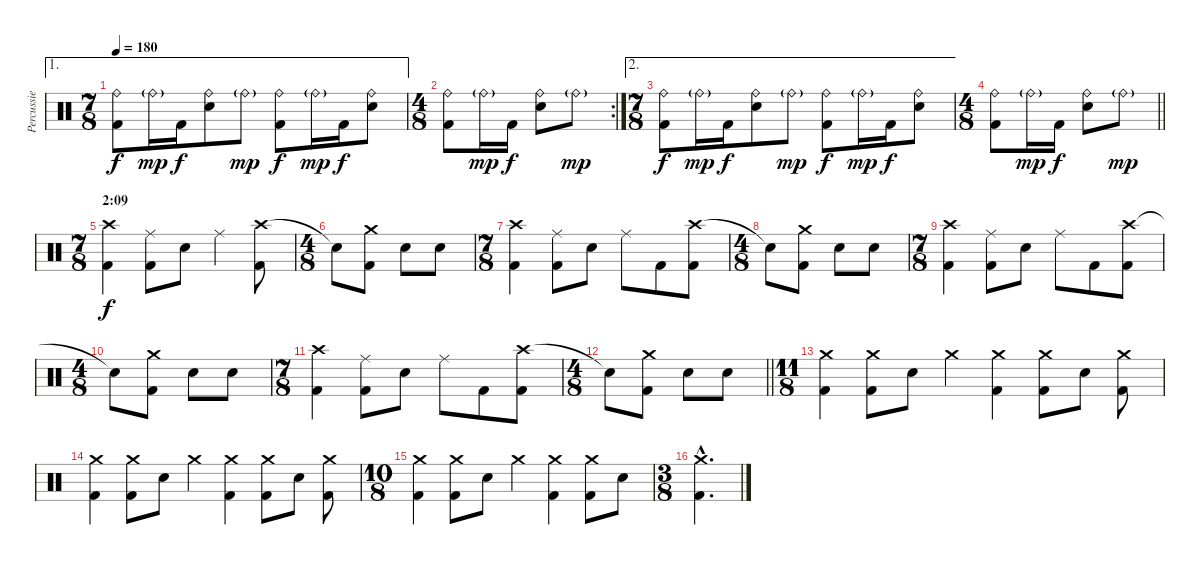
\track ("Percussie" "Percussie") {instrument percussion}
\staff {score}
\articulation defaults
\ae 1
\ts (7 8)
\tempo 180
\clef neutral
\ks c
("Ride (bell)" "Kick (hit) 2").8{dy f} "Ride (bell)"{g}.16{dy mp} "Kick (hit) 2".16{dy f} ("Ride (bell)" "Snare (hit) 2").8 "Ride (bell)"{g}.8{dy mp} ("Ride (bell)" "Kick (hit) 2").8{dy f} "Ride (bell)"{g}.16{dy mp} "Kick (hit) 2".16{dy f} ("Ride (bell)" "Snare (hit) 2").8 |
\rc 2
\ts (4 8)
("Ride (bell)" "Kick (hit) 2").8 "Ride (bell)"{g}.16{dy mp} "Kick (hit) 2".16{dy f} ("Ride (bell)" "Snare (hit) 2").8 "Ride (bell)"{g}.8{dy mp} |
\ae 2
\ts (7 8)
("Ride (bell)" "Kick (hit) 2").8{dy f} "Ride (bell)"{g}.16{dy mp} "Kick (hit) 2".16{dy f} ("Ride (bell)" "Snare (hit) 2").8 "Ride (bell)"{g}.8{dy mp} ("Ride (bell)" "Kick (hit) 2").8{dy f} "Ride (bell)"{g}.16{dy mp} "Kick (hit) 2".16{dy f} ("Ride (bell)" "Snare (hit) 2").8 |
\ts (4 8)
\barLineRight lightlight
("Ride (bell)" "Kick (hit) 2").8 "Ride (bell)"{g}.16{dy mp} "Kick (hit) 2".16{dy f} ("Ride (bell)" "Snare (hit) 2").8 "Ride (bell)"{g}.8{dy mp} |
\ts (7 8)
\section ("" "2:09")
("Crash high (hit)" "Kick (hit) 2").4{dy f} ("Ride (middle)" "Kick (hit) 2").8 "Snare (hit) 2".8 "Ride (middle)".4 ("Crash high (hit)" "Kick (hit) 2").8 |
\ts (4 8)
"Snare (hit)"{t}.8 ("Crash medium (hit)" "Kick (hit) 2").8 "Snare (hit) 2".8 "Snare (hit) 2".8 |
\ts (7 8)
("Crash high (hit)" "Kick (hit) 2").4 ("Ride (middle)" "Kick (hit) 2").8 "Snare (hit) 2".8 "Ride (middle)".8 "Kick (hit) 2".8 ("Crash high (hit)" "Kick (hit) 2").8 |
\ts (4 8)
"Snare (hit)"{t}.8 ("Crash medium (hit)" "Kick (hit) 2").8 "Snare (hit) 2".8 "Snare (hit) 2".8 |
\ts (7 8)
("Crash high (hit)" "Kick (hit) 2").4 ("Ride (middle)" "Kick (hit) 2").8 "Snare (hit) 2".8 "Ride (middle)".8 "Kick (hit) 2".8 ("Crash high (hit)" "Kick (hit) 2").8 |
\ts (4 8)
"Snare (hit)"{t}.8 ("Crash medium (hit)" "Kick (hit) 2").8 "Snare (hit) 2".8 "Snare (hit) 2".8 |
\ts (7 8)
("Crash high (hit)" "Kick (hit) 2").4 ("Ride (middle)" "Kick (hit) 2").8 "Snare (hit) 2".8 "Ride (middle)".8 "Kick (hit) 2".8 ("Crash high (hit)" "Kick (hit) 2").8 |
\ts (4 8)
\barLineRight lightlight "Snare (hit)"{t}.8
("Crash medium (hit)" "Kick (hit) 2").8 "Snare (hit) 2".8 "Snare (hit) 2".8 |
\ts (11 8)
("Crash medium (hit)" "Kick (hit) 2").4 ("Crash medium (hit)" "Kick (hit) 2").8 "Snare (hit) 2".8 "Crash medium (hit)".4 ("Crash medium (hit)" "Kick (hit) 2").4 ("Crash medium (hit)" "Kick (hit) 2").8 "Snare (hit) 2".8 ("Crash medium (hit)" "Kick (hit) 2").8 |
("Crash medium (hit)" "Kick (hit) 2").4 ("Crash medium (hit)" "Kick (hit) 2").8 "Snare (hit) 2".8 "Crash medium (hit)".4 ("Crash medium (hit)" "Kick (hit) 2").4 ("Crash medium (hit)" "Kick (hit) 2").8 "Snare (hit) 2".8 ("Crash medium (hit)" "Kick (hit) 2").8 |
\ts (10 8)
("Crash medium (hit)" "Kick (hit) 2").4 ("Crash medium (hit)" "Kick (hit) 2").8 "Snare (hit) 2".8 "Crash medium (hit)".4 ("Crash medium (hit)" "Kick (hit) 2").4 ("Crash medium (hit)" "Kick (hit) 2").8 "Snare (hit) 2".8 |
\ts (3 8)
("Crash medium (hit)"{hac} "Kick (hit) 2"{hac}).4{d}
